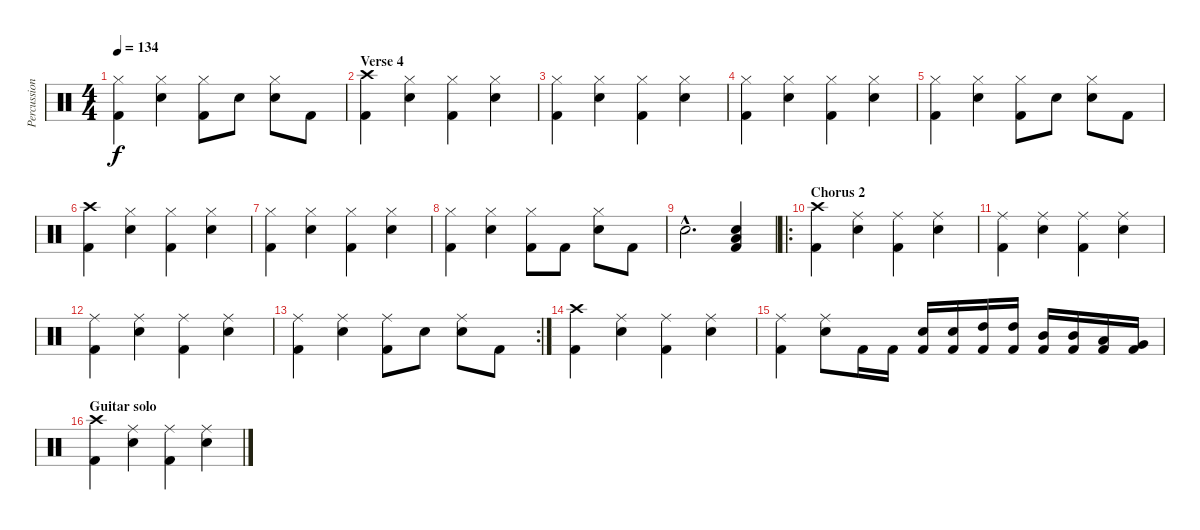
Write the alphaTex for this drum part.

\track ("Percussion" "Percussion") {instrument percussion}
\staff {score}
\articulation defaults
\ts (4 4)
\tempo 134
\clef neutral
\ks c
("Kick (hit) 2" "Hi-Hat (closed)").4{dy f} ("Snare (hit) 2" "Hi-Hat (closed)").4 ("Kick (hit) 2" "Hi-Hat (closed)").8 "Snare (hit) 2".8 ("Snare (hit) 2" "Hi-Hat (closed)").8 "Kick (hit) 2".8 |
\section ("" "Verse 4")
("Kick (hit) 2" "Crash high (hit)").4 ("Snare (hit) 2" "Hi-Hat (closed)").4 ("Kick (hit) 2" "Hi-Hat (closed)").4 ("Snare (hit) 2" "Hi-Hat (closed)").4 |
("Kick (hit) 2" "Hi-Hat (closed)").4 ("Snare (hit) 2" "Hi-Hat (closed)").4 ("Kick (hit) 2" "Hi-Hat (closed)").4 ("Snare (hit) 2" "Hi-Hat (closed)").4 |
("Kick (hit) 2" "Hi-Hat (closed)").4 ("Snare (hit) 2" "Hi-Hat (closed)").4 ("Kick (hit) 2" "Hi-Hat (closed)").4 ("Snare (hit) 2" "Hi-Hat (closed)").4 |
("Kick (hit) 2" "Hi-Hat (closed)").4 ("Snare (hit) 2" "Hi-Hat (closed)").4 ("Kick (hit) 2" "Hi-Hat (closed)").8 "Snare (hit) 2".8 ("Snare (hit) 2" "Hi-Hat (closed)").8 "Kick (hit) 2".8 |
("Kick (hit) 2" "Crash high (hit)").4 ("Snare (hit) 2" "Hi-Hat (closed)").4 ("Kick (hit) 2" "Hi-Hat (closed)").4 ("Snare (hit) 2" "Hi-Hat (closed)").4 |
("Kick (hit) 2" "Hi-Hat (closed)").4 ("Snare (hit) 2" "Hi-Hat (closed)").4 ("Kick (hit) 2" "Hi-Hat (closed)").4 ("Snare (hit) 2" "Hi-Hat (closed)").4 |
("Kick (hit) 2" "Hi-Hat (closed)").4 ("Snare (hit) 2" "Hi-Hat (closed)").4 ("Kick (hit) 2" "Hi-Hat (closed)").8 "Kick (hit) 2".8 ("Snare (hit) 2" "Hi-Hat (closed)").8 "Kick (hit) 2".8 |
"Snare (hit) 2"{hac}.2{d} ("Kick (hit) 2" "Snare (hit) 2" "Low Floor Tom (hit)").4 |
\ro
\section ("" "Chorus 2")
("Kick (hit) 2" "Crash high (hit)").4 ("Snare (hit) 2" "Ride (middle)").4 ("Kick (hit) 2" "Ride (middle)").4 ("Snare (hit) 2" "Ride (middle)").4 |
("Kick (hit) 2" "Ride (middle)").4 ("Snare (hit) 2" "Ride (middle)").4 ("Kick (hit) 2" "Ride (middle)").4 ("Snare (hit) 2" "Ride (middle)").4 |
("Kick (hit) 2" "Ride (middle)").4 ("Snare (hit) 2" "Ride (middle)").4 ("Kick (hit) 2" "Ride (middle)").4 ("Snare (hit) 2" "Ride (middle)").4 |
\rc 2
("Kick (hit) 2" "Ride (middle)").4 ("Snare (hit) 2" "Ride (middle)").4 ("Kick (hit) 2" "Ride (middle)").8 "Snare (hit) 2".8 ("Snare (hit) 2" "Ride (middle)").8 "Kick (hit) 2".8 |
("Kick (hit) 2" "Crash high (hit)").4 ("Snare (hit) 2" "Ride (middle)").4 ("Kick (hit) 2" "Ride (middle)").4 ("Snare (hit) 2" "Ride (middle)").4 |
("Kick (hit) 2" "Ride (middle)").4 ("Snare (hit) 2" "Ride (middle)").8 "Kick (hit) 2".16 "Kick (hit) 2".16 ("Kick (hit) 2" "Snare (hit) 2").16 ("Kick (hit) 2" "Snare (hit) 2").16 ("Kick (hit) 2" "High Tom (hit)").16 ("Kick (hit) 2" "High Tom (hit)").16 ("Kick (hit) 2" "Mid Tom (hit)").16 ("Kick (hit) 2" "Mid Tom (hit)").16 ("Kick (hit) 2" "Low Tom (hit)").16 ("Kick (hit) 2" "Very Low Tom (hit)").16 |
\section ("" "Guitar solo")
("Kick (hit) 2" "Crash high (hit)").4 ("Snare (hit) 2" "Ride (middle)").4 ("Kick (hit) 2" "Ride (middle)").4 ("Snare (hit) 2" "Ride (middle)").4
